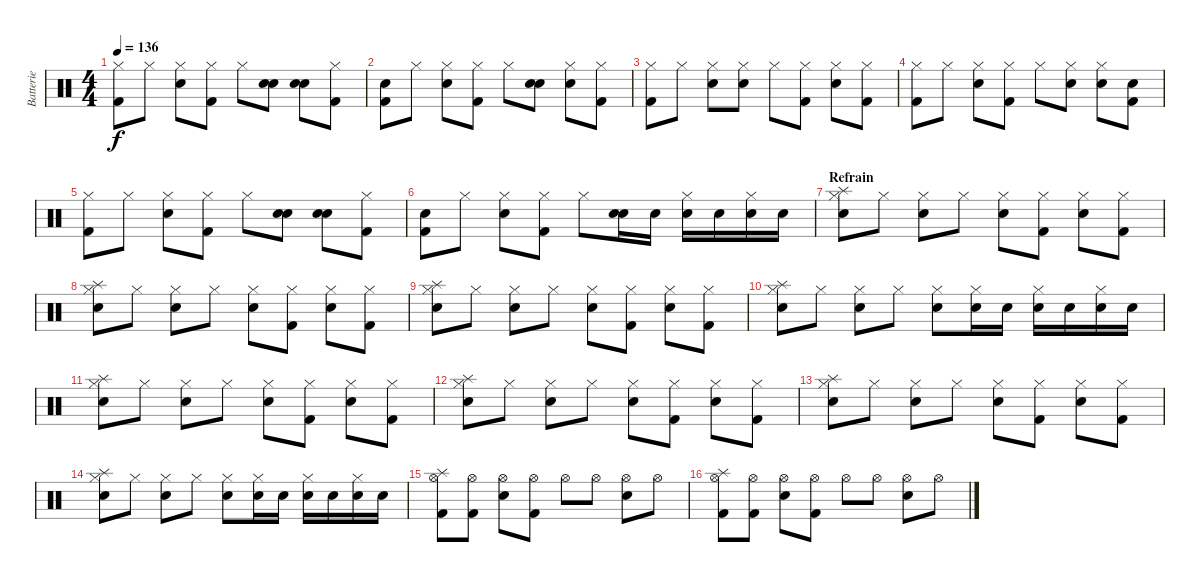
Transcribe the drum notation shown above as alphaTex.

\track ("Batterie" "Batterie") {instrument percussion}
\staff {score}
\articulation defaults
\ts (4 4)
\tempo 136
\clef neutral
\ks c
("Hi-Hat (closed)" "Kick (hit) 2").8{dy f} "Hi-Hat (closed)".8 ("Hi-Hat (closed)" "Snare (hit) 2").8 ("Hi-Hat (closed)" "Kick (hit) 2").8 "Hi-Hat (closed)".8 ("Snare (hit)" "Snare (hit) 2").8 ("Snare (hit)" "Snare (hit) 2").8 ("Hi-Hat (closed)" "Kick (hit) 2").8 |
("Snare (hit)" "Kick (hit) 2").8 "Hi-Hat (closed)".8 ("Hi-Hat (closed)" "Snare (hit) 2").8 ("Hi-Hat (closed)" "Kick (hit) 2").8 "Hi-Hat (closed)".8 ("Snare (hit)" "Snare (hit) 2").8 ("Hi-Hat (closed)" "Snare (hit) 2").8 ("Hi-Hat (closed)" "Kick (hit) 2").8 |
("Hi-Hat (closed)" "Kick (hit) 2").8 "Hi-Hat (closed)".8 ("Hi-Hat (closed)" "Snare (hit) 2").8 ("Hi-Hat (closed)" "Snare (hit) 2").8 "Hi-Hat (closed)".8 ("Hi-Hat (closed)" "Kick (hit) 2").8 ("Hi-Hat (closed)" "Snare (hit) 2").8 ("Hi-Hat (closed)" "Kick (hit) 2").8 |
("Hi-Hat (closed)" "Kick (hit) 2").8 "Hi-Hat (closed)".8 ("Hi-Hat (closed)" "Snare (hit) 2").8 ("Hi-Hat (closed)" "Kick (hit) 2").8 "Hi-Hat (closed)".8 ("Hi-Hat (closed)" "Snare (hit) 2").8 ("Hi-Hat (closed)" "Snare (hit) 2").8 ("Snare (hit)" "Kick (hit) 2").8 |
("Hi-Hat (closed)" "Kick (hit) 2").8 "Hi-Hat (closed)".8 ("Hi-Hat (closed)" "Snare (hit) 2").8 ("Hi-Hat (closed)" "Kick (hit) 2").8 "Hi-Hat (closed)".8 ("Snare (hit)" "Snare (hit) 2").8 ("Snare (hit)" "Snare (hit) 2").8 ("Hi-Hat (closed)" "Kick (hit) 2").8 |
("Snare (hit)" "Kick (hit) 2").8 "Hi-Hat (closed)".8 ("Hi-Hat (closed)" "Snare (hit) 2").8 ("Hi-Hat (closed)" "Kick (hit) 2").8 "Hi-Hat (closed)".8 ("Snare (hit)" "Snare (hit) 2").16 "Snare (hit) 2".16 ("Hi-Hat (closed)" "Snare (hit) 2").16 "Snare (hit) 2".16 ("Hi-Hat (closed)" "Snare (hit) 2").16 "Snare (hit) 2".16 |
\section ("" "Refrain")
("Splash (hit)" "Hi-Hat (closed)" "Snare (hit) 2").8 "Hi-Hat (closed)".8 ("Hi-Hat (closed)" "Snare (hit) 2").8 "Hi-Hat (closed)".8 ("Hi-Hat (closed)" "Snare (hit) 2").8 ("Hi-Hat (closed)" "Kick (hit) 2").8 ("Hi-Hat (closed)" "Snare (hit) 2").8 ("Hi-Hat (closed)" "Kick (hit) 2").8 |
("Splash (hit)" "Hi-Hat (closed)" "Snare (hit) 2").8 "Hi-Hat (closed)".8 ("Hi-Hat (closed)" "Snare (hit) 2").8 "Hi-Hat (closed)".8 ("Hi-Hat (closed)" "Snare (hit) 2").8 ("Hi-Hat (closed)" "Kick (hit) 2").8 ("Hi-Hat (closed)" "Snare (hit) 2").8 ("Hi-Hat (closed)" "Kick (hit) 2").8 |
("Splash (hit)" "Hi-Hat (closed)" "Snare (hit) 2").8 "Hi-Hat (closed)".8 ("Hi-Hat (closed)" "Snare (hit) 2").8 "Hi-Hat (closed)".8 ("Hi-Hat (closed)" "Snare (hit) 2").8 ("Hi-Hat (closed)" "Kick (hit) 2").8 ("Hi-Hat (closed)" "Snare (hit) 2").8 ("Hi-Hat (closed)" "Kick (hit) 2").8 |
("Splash (hit)" "Hi-Hat (closed)" "Snare (hit) 2").8 "Hi-Hat (closed)".8 ("Hi-Hat (closed)" "Snare (hit) 2").8 "Hi-Hat (closed)".8 ("Hi-Hat (closed)" "Snare (hit) 2").8 ("Hi-Hat (closed)" "Snare (hit) 2").16 "Snare (hit) 2".16 ("Hi-Hat (closed)" "Snare (hit) 2").16 "Snare (hit) 2".16 ("Hi-Hat (closed)" "Snare (hit) 2").16 "Snare (hit) 2".16 |
("Splash (hit)" "Hi-Hat (closed)" "Snare (hit) 2").8 "Hi-Hat (closed)".8 ("Hi-Hat (closed)" "Snare (hit) 2").8 "Hi-Hat (closed)".8 ("Hi-Hat (closed)" "Snare (hit) 2").8 ("Hi-Hat (closed)" "Kick (hit) 2").8 ("Hi-Hat (closed)" "Snare (hit) 2").8 ("Hi-Hat (closed)" "Kick (hit) 2").8 |
("Splash (hit)" "Hi-Hat (closed)" "Snare (hit) 2").8 "Hi-Hat (closed)".8 ("Hi-Hat (closed)" "Snare (hit) 2").8 "Hi-Hat (closed)".8 ("Hi-Hat (closed)" "Snare (hit) 2").8 ("Hi-Hat (closed)" "Kick (hit) 2").8 ("Hi-Hat (closed)" "Snare (hit) 2").8 ("Hi-Hat (closed)" "Kick (hit) 2").8 |
("Splash (hit)" "Hi-Hat (closed)" "Snare (hit) 2").8 "Hi-Hat (closed)".8 ("Hi-Hat (closed)" "Snare (hit) 2").8 "Hi-Hat (closed)".8 ("Hi-Hat (closed)" "Snare (hit) 2").8 ("Hi-Hat (closed)" "Kick (hit) 2").8 ("Hi-Hat (closed)" "Snare (hit) 2").8 ("Hi-Hat (closed)" "Kick (hit) 2").8 |
("Splash (hit)" "Hi-Hat (closed)" "Snare (hit) 2").8 "Hi-Hat (closed)".8 ("Hi-Hat (closed)" "Snare (hit) 2").8 "Hi-Hat (closed)".8 ("Hi-Hat (closed)" "Snare (hit) 2").8 ("Hi-Hat (closed)" "Snare (hit) 2").16 "Snare (hit) 2".16 ("Hi-Hat (closed)" "Snare (hit) 2").16 "Snare (hit) 2".16 ("Hi-Hat (closed)" "Snare (hit) 2").16 "Snare (hit) 2".16 |
("Splash (hit)" "Hi-Hat (open)" "Kick (hit) 2").8 ("Hi-Hat (open)" "Kick (hit) 2").8 ("Hi-Hat (open)" "Snare (hit) 2").8 ("Hi-Hat (open)" "Kick (hit) 2").8 "Hi-Hat (open)".8 "Hi-Hat (open)".8 ("Hi-Hat (open)" "Snare (hit) 2").8 "Hi-Hat (open)".8 |
("Splash (hit)" "Hi-Hat (open)" "Kick (hit) 2").8 ("Hi-Hat (open)" "Kick (hit) 2").8 ("Hi-Hat (open)" "Snare (hit) 2").8 ("Hi-Hat (open)" "Kick (hit) 2").8 "Hi-Hat (open)".8 "Hi-Hat (open)".8 ("Hi-Hat (open)" "Snare (hit) 2").8 "Hi-Hat (open)".8
